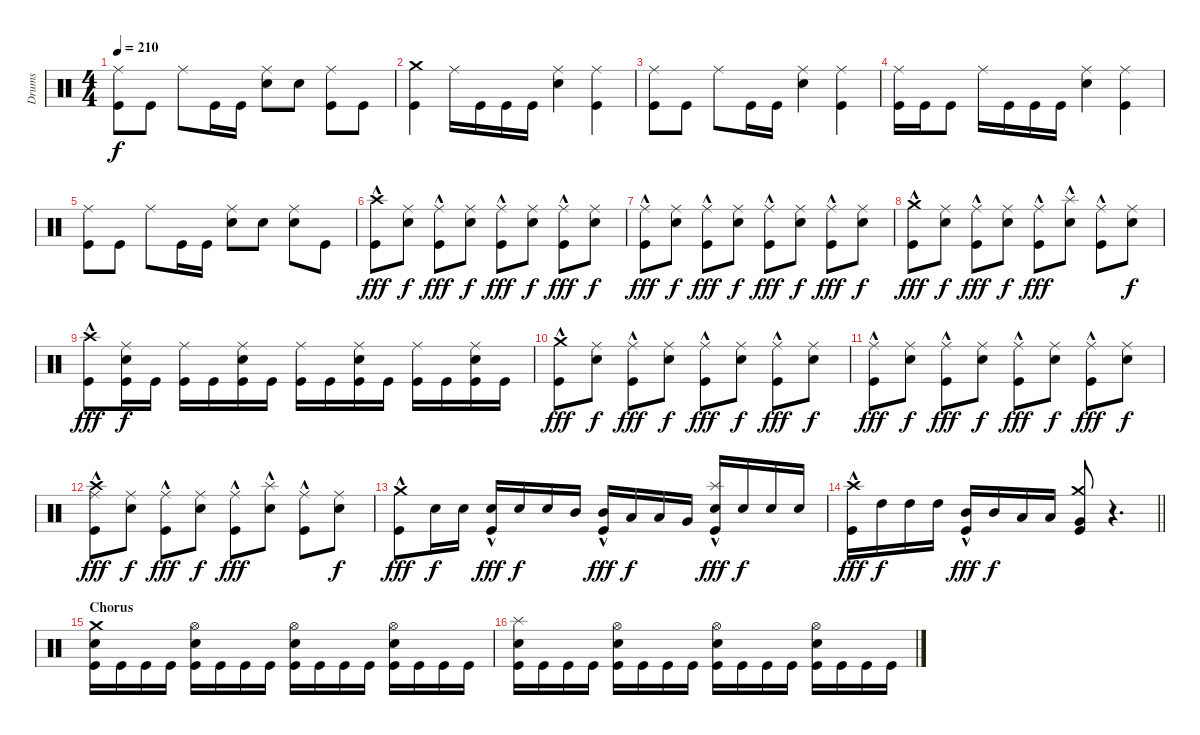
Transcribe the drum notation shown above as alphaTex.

\track ("Drums" "Drums") {instrument percussion}
\staff {score}
\articulation defaults
\ts (4 4)
\tempo 210
\clef neutral
\ks c
("Ride (middle)" "Kick (hit)").8{dy f} "Kick (hit)".8 "Ride (middle)".8 "Kick (hit)".16 "Kick (hit)".16 ("Ride (middle)" "Electric Snare (hit)").8 "Electric Snare (hit)".8 ("Ride (middle)" "Kick (hit)").8 "Kick (hit)".8 |
("Crash medium (hit)" "Kick (hit)").4 "Ride (middle)".16 "Kick (hit)".16 "Kick (hit)".16 "Kick (hit)".16 ("Ride (middle)" "Electric Snare (hit)").4 ("Ride (middle)" "Kick (hit)").4 |
("Ride (middle)" "Kick (hit)").8 "Kick (hit)".8 "Ride (middle)".8 "Kick (hit)".16 "Kick (hit)".16 ("Ride (middle)" "Electric Snare (hit)").4 ("Ride (middle)" "Kick (hit)").4 |
("Ride (middle)" "Kick (hit)").16 "Kick (hit)".16 "Kick (hit)".8 "Ride (middle)".16 "Kick (hit)".16 "Kick (hit)".16 "Kick (hit)".16 ("Ride (middle)" "Electric Snare (hit)").4 ("Ride (middle)" "Kick (hit)").4 |
("Ride (middle)" "Kick (hit)").8 "Kick (hit)".8 "Ride (middle)".8 "Kick (hit)".16 "Kick (hit)".16 ("Ride (middle)" "Electric Snare (hit)").8 "Electric Snare (hit)".8 ("Ride (middle)" "Electric Snare (hit)").8 "Kick (hit)".8 |
("Crash high (hit)" "Kick (hit)"{hac}).8{dy fff} ("Ride (middle)" "Electric Snare (hit)").8{dy f} ("Ride (middle)" "Kick (hit)"{hac}).8{dy fff} ("Ride (middle)" "Electric Snare (hit)").8{dy f} ("Ride (middle)" "Kick (hit)"{hac}).8{dy fff} ("Ride (middle)" "Electric Snare (hit)").8{dy f} ("Ride (middle)" "Kick (hit)"{hac}).8{dy fff} ("Ride (middle)" "Electric Snare (hit)").8{dy f} |
("Ride (middle)" "Kick (hit)"{hac}).8{dy fff} ("Ride (middle)" "Electric Snare (hit)").8{dy f} ("Ride (middle)" "Kick (hit)"{hac}).8{dy fff} ("Ride (middle)" "Electric Snare (hit)").8{dy f} ("Ride (middle)" "Kick (hit)"{hac}).8{dy fff} ("Ride (middle)" "Electric Snare (hit)").8{dy f} ("Ride (middle)" "Kick (hit)"{hac}).8{dy fff} ("Ride (middle)" "Electric Snare (hit)").8{dy f} |
("Crash medium (hit)" "Kick (hit)"{hac}).8{dy fff} ("Ride (middle)" "Electric Snare (hit)").8{dy f} ("Ride (middle)" "Kick (hit)"{hac}).8{dy fff} ("Ride (middle)" "Electric Snare (hit)").8{dy f} ("Ride (middle)" "Kick (hit)"{hac}).8{dy fff} ("Splash (hit)" "Electric Snare (hit)"{hac}).8 ("Ride (middle)" "Kick (hit)"{hac}).8 ("Ride (middle)" "Electric Snare (hit)").8{dy f} |
("Crash high (hit)" "Kick (hit)"{hac}).8{dy fff} ("Ride (middle)" "Electric Snare (hit)" "Kick (hit)").16{dy f} "Kick (hit)".16 ("Ride (middle)" "Kick (hit)").16 "Kick (hit)".16 ("Ride (middle)" "Electric Snare (hit)" "Kick (hit)").16 "Kick (hit)".16 ("Ride (middle)" "Kick (hit)").16 "Kick (hit)".16 ("Ride (middle)" "Electric Snare (hit)" "Kick (hit)").16 "Kick (hit)".16 ("Ride (middle)" "Kick (hit)").16 "Kick (hit)".16 ("Ride (middle)" "Electric Snare (hit)" "Kick (hit)").16 "Kick (hit)".16 |
("Crash medium (hit)" "Kick (hit)"{hac}).8{dy fff} ("Ride (middle)" "Electric Snare (hit)").8{dy f} ("Ride (middle)" "Kick (hit)"{hac}).8{dy fff} ("Ride (middle)" "Electric Snare (hit)").8{dy f} ("Ride (middle)" "Kick (hit)"{hac}).8{dy fff} ("Ride (middle)" "Electric Snare (hit)").8{dy f} ("Ride (middle)" "Kick (hit)"{hac}).8{dy fff} ("Ride (middle)" "Electric Snare (hit)").8{dy f} |
("Ride (middle)" "Kick (hit)"{hac}).8{dy fff} ("Ride (middle)" "Electric Snare (hit)").8{dy f} ("Ride (middle)" "Kick (hit)"{hac}).8{dy fff} ("Ride (middle)" "Electric Snare (hit)").8{dy f} ("Ride (middle)" "Kick (hit)"{hac}).8{dy fff} ("Ride (middle)" "Electric Snare (hit)").8{dy f} ("Ride (middle)" "Kick (hit)"{hac}).8{dy fff} ("Ride (middle)" "Electric Snare (hit)").8{dy f} |
("Crash high (hit)" "Ride (middle)" "Kick (hit)"{hac}).8{dy fff} ("Ride (middle)" "Electric Snare (hit)").8{dy f} ("Ride (middle)" "Kick (hit)"{hac}).8{dy fff} ("Ride (middle)" "Electric Snare (hit)").8{dy f} ("Ride (middle)" "Kick (hit)"{hac}).8{dy fff} ("Splash (hit)" "Electric Snare (hit)"{hac}).8 ("Ride (middle)" "Kick (hit)"{hac}).8 ("Ride (middle)" "Electric Snare (hit)").8{dy f} |
("Crash medium (hit)" "Kick (hit)"{hac}).8{dy fff} "Snare (hit) 2".16{dy f} "Snare (hit) 2".16 ("Snare (hit) 2" "Kick (hit)"{hac}).16{dy fff} "Snare (hit) 2".16{dy f} "Snare (hit) 2".16 "Mid Tom (hit)".16 ("Mid Tom (hit)" "Kick (hit)"{hac}).16{dy fff} "Low Tom (hit)".16{dy f} "Low Tom (hit)".16 "Very Low Tom (hit)".16 ("Splash (hit)" "Snare (hit) 2" "Kick (hit)"{hac}).16{dy fff} "Snare (hit) 2".16{dy f} "Snare (hit) 2".16 "Snare (hit) 2".16 |
\barLineRight lightlight
("Crash high (hit)" "Kick (hit)"{hac}).16{dy fff} "High Tom (hit)".16{dy f} "High Tom (hit)".16 "High Tom (hit)".16 ("Mid Tom (hit)" "Kick (hit)"{hac}).16{dy fff} "Mid Tom (hit)".16{dy f} "Low Tom (hit)".16 "Low Tom (hit)".16 ("Crash medium (hit)" "Very Low Tom (hit)" "Kick (hit)").8 r.4{d} |
\section ("" "Chorus")
("Crash medium (hit)" "Electric Snare (hit)" "Kick (hit)").16 "Kick (hit)".16 "Kick (hit)".16 "Kick (hit)".16 ("Hi-Hat (open)" "Electric Snare (hit)" "Kick (hit)").16 "Kick (hit)".16 "Kick (hit)".16 "Kick (hit)".16 ("Hi-Hat (open)" "Electric Snare (hit)" "Kick (hit)").16 "Kick (hit)".16 "Kick (hit)".16 "Kick (hit)".16 ("Hi-Hat (open)" "Electric Snare (hit)" "Kick (hit)").16 "Kick (hit)".16 "Kick (hit)".16 "Kick (hit)".16 |
("Splash (hit)" "Electric Snare (hit)" "Kick (hit)").16 "Kick (hit)".16 "Kick (hit)".16 "Kick (hit)".16 ("Hi-Hat (open)" "Electric Snare (hit)" "Kick (hit)").16 "Kick (hit)".16 "Kick (hit)".16 "Kick (hit)".16 ("Hi-Hat (open)" "Electric Snare (hit)" "Kick (hit)").16 "Kick (hit)".16 "Kick (hit)".16 "Kick (hit)".16 ("Hi-Hat (open)" "Electric Snare (hit)" "Kick (hit)").16 "Kick (hit)".16 "Kick (hit)".16 "Kick (hit)".16
